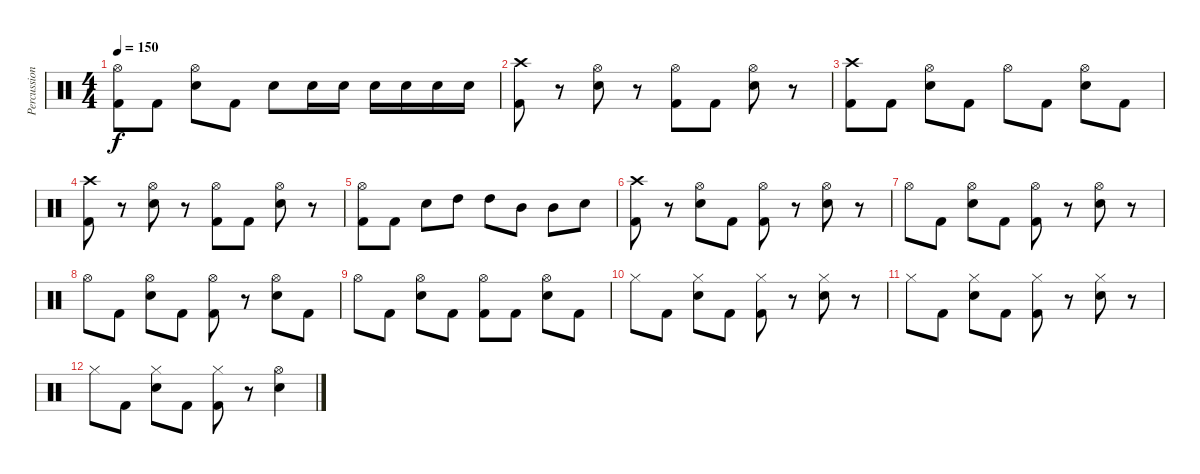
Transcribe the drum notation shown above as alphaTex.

\track ("Percussion" "Percussion") {instrument percussion}
\staff {score}
\articulation defaults
\ts (4 4)
\tempo 150
\clef neutral
\ks c
("Hi-Hat (open)" "Kick (hit) 2").8{dy f} "Kick (hit) 2".8 ("Hi-Hat (open)" "Electric Snare (hit)").8 "Kick (hit) 2".8 "Electric Snare (hit)".8 "Electric Snare (hit)".16 "Electric Snare (hit)".16 "Electric Snare (hit)".16 "Electric Snare (hit)".16 "Electric Snare (hit)".16 "Electric Snare (hit)".16 |
("Crash high (hit)" "Kick (hit) 2").8 r.8 ("Hi-Hat (open)" "Electric Snare (hit)").8 r.8 ("Hi-Hat (open)" "Kick (hit) 2").8 "Kick (hit) 2".8 ("Hi-Hat (open)" "Electric Snare (hit)").8 r.8 |
("Crash high (hit)" "Kick (hit) 2").8 "Kick (hit) 2".8 ("Hi-Hat (open)" "Electric Snare (hit)").8 "Kick (hit) 2".8 "Hi-Hat (open)".8 "Kick (hit) 2".8 ("Hi-Hat (open)" "Electric Snare (hit)").8 "Kick (hit) 2".8 |
("Crash high (hit)" "Kick (hit) 2").8 r.8 ("Hi-Hat (open)" "Electric Snare (hit)").8 r.8 ("Hi-Hat (open)" "Kick (hit) 2").8 "Kick (hit) 2".8 ("Hi-Hat (open)" "Electric Snare (hit)").8 r.8 |
("Hi-Hat (open)" "Kick (hit) 2").8 "Kick (hit) 2".8 "Electric Snare (hit)".8 "High Tom (hit)".8 "High Tom (hit)".8 "Mid Tom (hit)".8 "Mid Tom (hit)".8 "Electric Snare (hit)".8 |
("Crash high (hit)" "Kick (hit) 2").8 r.8 ("Hi-Hat (open)" "Electric Snare (hit)").8 "Kick (hit) 2".8 ("Hi-Hat (open)" "Kick (hit) 2").8 r.8 ("Hi-Hat (open)" "Electric Snare (hit)").8 r.8 |
"Hi-Hat (open)".8 "Kick (hit) 2".8 ("Hi-Hat (open)" "Electric Snare (hit)").8 "Kick (hit) 2".8 ("Hi-Hat (open)" "Kick (hit) 2").8 r.8 ("Hi-Hat (open)" "Electric Snare (hit)").8 r.8 |
"Hi-Hat (open)".8 "Kick (hit) 2".8 ("Hi-Hat (open)" "Electric Snare (hit)").8 "Kick (hit) 2".8 ("Hi-Hat (open)" "Kick (hit) 2").8 r.8 ("Hi-Hat (open)" "Electric Snare (hit)").8 "Kick (hit) 2".8 |
"Hi-Hat (open)".8 "Kick (hit) 2".8 ("Hi-Hat (open)" "Electric Snare (hit)").8 "Kick (hit) 2".8 ("Hi-Hat (open)" "Kick (hit) 2").8 "Kick (hit) 2".8 ("Hi-Hat (open)" "Electric Snare (hit)").8 "Kick (hit) 2".8 |
"Hi-Hat (closed)".8 "Kick (hit) 2".8 ("Hi-Hat (closed)" "Electric Snare (hit)").8 "Kick (hit) 2".8 ("Hi-Hat (closed)" "Kick (hit) 2").8 r.8 ("Hi-Hat (closed)" "Electric Snare (hit)").8 r.8 |
"Hi-Hat (closed)".8 "Kick (hit) 2".8 ("Hi-Hat (closed)" "Electric Snare (hit)").8 "Kick (hit) 2".8 ("Hi-Hat (closed)" "Kick (hit) 2").8 r.8 ("Hi-Hat (closed)" "Electric Snare (hit)").8 r.8 |
"Hi-Hat (closed)".8 "Kick (hit) 2".8 ("Hi-Hat (closed)" "Electric Snare (hit)").8 "Kick (hit) 2".8 ("Hi-Hat (closed)" "Kick (hit) 2").8 r.8 ("Hi-Hat (open)" "Electric Snare (hit)").4
